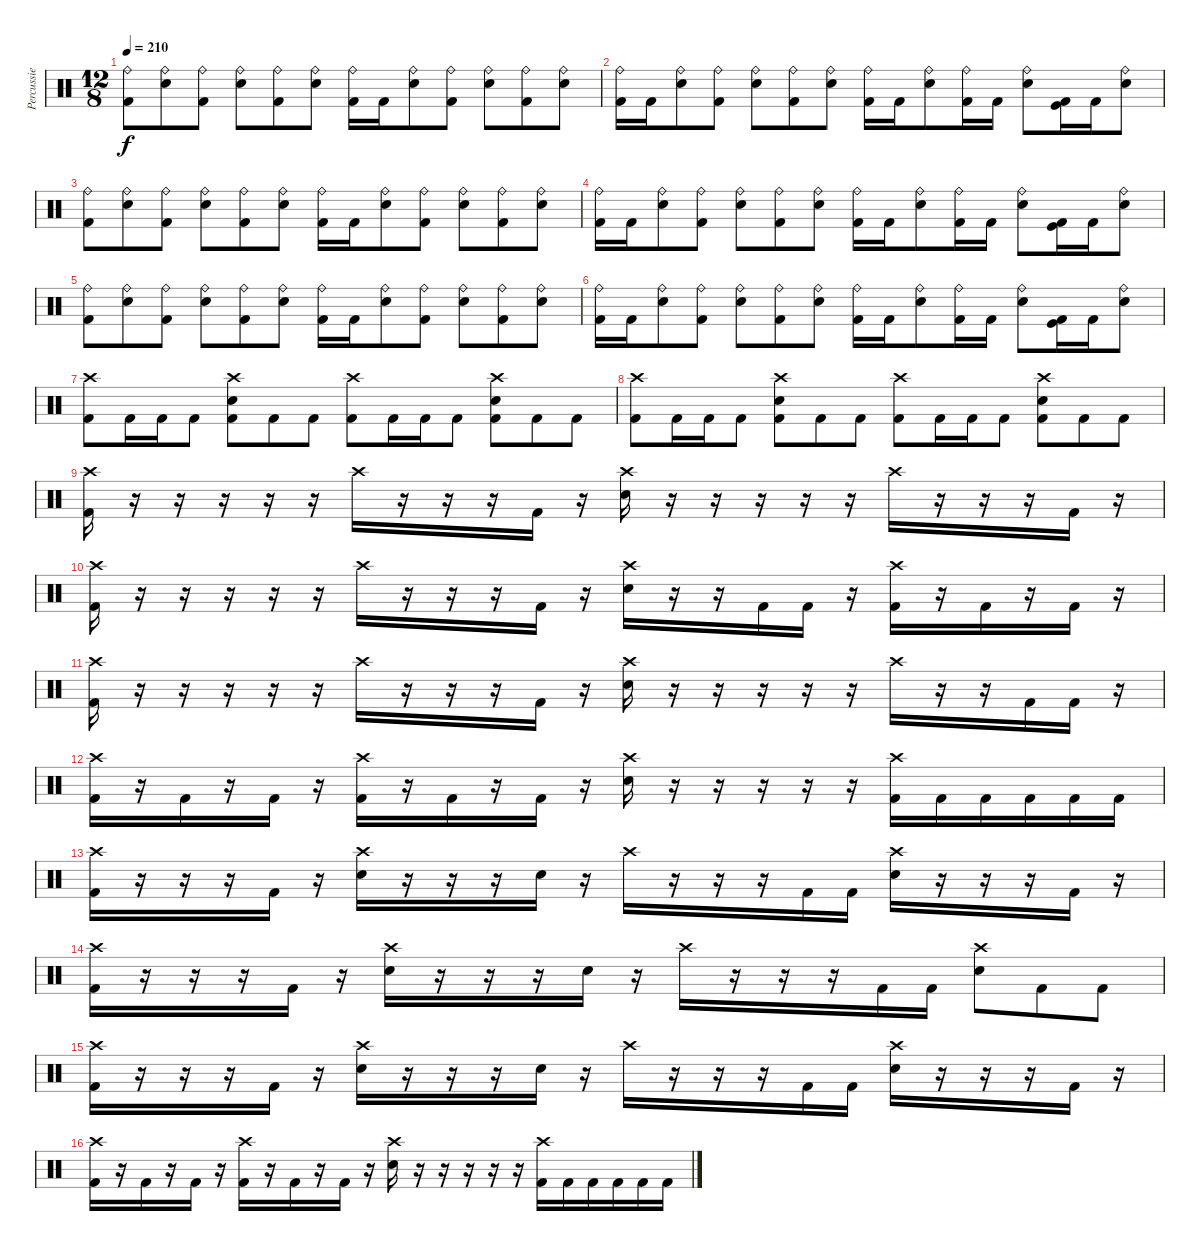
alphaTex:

\track ("Percussie" "Percussie") {instrument percussion}
\staff {score}
\articulation defaults
\ts (12 8)
\tempo 210
\clef neutral
\ks c
("Kick (hit) 2" "Ride (bell)").8{dy f} ("Snare (hit) 2" "Ride (bell)").8 ("Kick (hit) 2" "Ride (bell)").8 ("Snare (hit) 2" "Ride (bell)").8 ("Kick (hit) 2" "Ride (bell)").8 ("Snare (hit) 2" "Ride (bell)").8 ("Kick (hit) 2" "Ride (bell)").16 "Kick (hit) 2".16 ("Snare (hit) 2" "Ride (bell)").8 ("Kick (hit) 2" "Ride (bell)").8 ("Snare (hit) 2" "Ride (bell)").8 ("Kick (hit) 2" "Ride (bell)").8 ("Snare (hit) 2" "Ride (bell)").8 |
("Kick (hit) 2" "Ride (bell)").16 "Kick (hit) 2".16 ("Snare (hit) 2" "Ride (bell)").8 ("Kick (hit) 2" "Ride (bell)").8 ("Snare (hit) 2" "Ride (bell)").8 ("Kick (hit) 2" "Ride (bell)").8 ("Snare (hit) 2" "Ride (bell)").8 ("Kick (hit) 2" "Ride (bell)").16 "Kick (hit) 2".16 ("Snare (hit) 2" "Ride (bell)").8 ("Kick (hit) 2" "Ride (bell)").16 "Kick (hit) 2".16 ("Snare (hit) 2" "Ride (bell)").8 ("Kick (hit) 2" "Kick (hit)").16 "Kick (hit) 2".16 ("Snare (hit) 2" "Ride (bell)").8 |
("Kick (hit) 2" "Ride (bell)").8 ("Snare (hit) 2" "Ride (bell)").8 ("Kick (hit) 2" "Ride (bell)").8 ("Snare (hit) 2" "Ride (bell)").8 ("Kick (hit) 2" "Ride (bell)").8 ("Snare (hit) 2" "Ride (bell)").8 ("Kick (hit) 2" "Ride (bell)").16 "Kick (hit) 2".16 ("Snare (hit) 2" "Ride (bell)").8 ("Kick (hit) 2" "Ride (bell)").8 ("Snare (hit) 2" "Ride (bell)").8 ("Kick (hit) 2" "Ride (bell)").8 ("Snare (hit) 2" "Ride (bell)").8 |
("Kick (hit) 2" "Ride (bell)").16 "Kick (hit) 2".16 ("Snare (hit) 2" "Ride (bell)").8 ("Kick (hit) 2" "Ride (bell)").8 ("Snare (hit) 2" "Ride (bell)").8 ("Kick (hit) 2" "Ride (bell)").8 ("Snare (hit) 2" "Ride (bell)").8 ("Kick (hit) 2" "Ride (bell)").16 "Kick (hit) 2".16 ("Snare (hit) 2" "Ride (bell)").8 ("Kick (hit) 2" "Ride (bell)").16 "Kick (hit) 2".16 ("Snare (hit) 2" "Ride (bell)").8 ("Kick (hit) 2" "Kick (hit)").16 "Kick (hit) 2".16 ("Snare (hit) 2" "Ride (bell)").8 |
("Kick (hit) 2" "Ride (bell)").8 ("Snare (hit) 2" "Ride (bell)").8 ("Kick (hit) 2" "Ride (bell)").8 ("Snare (hit) 2" "Ride (bell)").8 ("Kick (hit) 2" "Ride (bell)").8 ("Snare (hit) 2" "Ride (bell)").8 ("Kick (hit) 2" "Ride (bell)").16 "Kick (hit) 2".16 ("Snare (hit) 2" "Ride (bell)").8 ("Kick (hit) 2" "Ride (bell)").8 ("Snare (hit) 2" "Ride (bell)").8 ("Kick (hit) 2" "Ride (bell)").8 ("Snare (hit) 2" "Ride (bell)").8 |
("Kick (hit) 2" "Ride (bell)").16 "Kick (hit) 2".16 ("Snare (hit) 2" "Ride (bell)").8 ("Kick (hit) 2" "Ride (bell)").8 ("Snare (hit) 2" "Ride (bell)").8 ("Kick (hit) 2" "Ride (bell)").8 ("Snare (hit) 2" "Ride (bell)").8 ("Kick (hit) 2" "Ride (bell)").16 "Kick (hit) 2".16 ("Snare (hit) 2" "Ride (bell)").8 ("Kick (hit) 2" "Ride (bell)").16 "Kick (hit) 2".16 ("Snare (hit) 2" "Ride (bell)").8 ("Kick (hit) 2" "Kick (hit)").16 "Kick (hit) 2".16 ("Snare (hit) 2" "Ride (bell)").8 |
("Kick (hit) 2" "Crash high (hit)").8 "Kick (hit) 2".16 "Kick (hit) 2".16 "Kick (hit) 2".8 ("Kick (hit) 2" "Snare (hit) 2" "Crash high (hit)").8 "Kick (hit) 2".8 "Kick (hit) 2".8 ("Kick (hit) 2" "Crash high (hit)").8 "Kick (hit) 2".16 "Kick (hit) 2".16 "Kick (hit) 2".8 ("Kick (hit) 2" "Snare (hit) 2" "Crash high (hit)").8 "Kick (hit) 2".8 "Kick (hit) 2".8 |
("Kick (hit) 2" "Crash high (hit)").8 "Kick (hit) 2".16 "Kick (hit) 2".16 "Kick (hit) 2".8 ("Kick (hit) 2" "Snare (hit) 2" "Crash high (hit)").8 "Kick (hit) 2".8 "Kick (hit) 2".8 ("Kick (hit) 2" "Crash high (hit)").8 "Kick (hit) 2".16 "Kick (hit) 2".16 "Kick (hit) 2".8 ("Kick (hit) 2" "Snare (hit) 2" "Crash high (hit)").8 "Kick (hit) 2".8 "Kick (hit) 2".8 |
("Crash high (hit)" "Kick (hit) 2").16 r.16 r.16 r.16 r.16 r.16 "Crash high (hit)".16 r.16 r.16 r.16 "Kick (hit) 2".16 r.16 ("Crash high (hit)" "Snare (hit) 2").16 r.16 r.16 r.16 r.16 r.16 "Crash high (hit)".16 r.16 r.16 r.16 "Kick (hit) 2".16 r.16 |
("Crash high (hit)" "Kick (hit) 2").16 r.16 r.16 r.16 r.16 r.16 "Crash high (hit)".16 r.16 r.16 r.16 "Kick (hit) 2".16 r.16 ("Crash high (hit)" "Snare (hit) 2").16 r.16 r.16 "Kick (hit) 2".16 "Kick (hit) 2".16 r.16 ("Crash high (hit)" "Kick (hit) 2").16 r.16 "Kick (hit) 2".16 r.16 "Kick (hit) 2".16 r.16 |
("Crash high (hit)" "Kick (hit) 2").16 r.16 r.16 r.16 r.16 r.16 "Crash high (hit)".16 r.16 r.16 r.16 "Kick (hit) 2".16 r.16 ("Crash high (hit)" "Snare (hit) 2").16 r.16 r.16 r.16 r.16 r.16 "Crash high (hit)".16 r.16 r.16 "Kick (hit) 2".16 "Kick (hit) 2".16 r.16 |
("Crash high (hit)" "Kick (hit) 2").16 r.16 "Kick (hit) 2".16 r.16 "Kick (hit) 2".16 r.16 ("Crash high (hit)" "Kick (hit) 2").16 r.16 "Kick (hit) 2".16 r.16 "Kick (hit) 2".16 r.16 ("Crash high (hit)" "Snare (hit) 2").16 r.16 r.16 r.16 r.16 r.16 ("Crash high (hit)" "Kick (hit) 2").16 "Kick (hit) 2".16 "Kick (hit) 2".16 "Kick (hit) 2".16 "Kick (hit) 2".16 "Kick (hit) 2".16 |
("Crash high (hit)" "Kick (hit) 2").16 r.16 r.16 r.16 "Kick (hit) 2".16 r.16 ("Crash high (hit)" "Snare (hit) 2").16 r.16 r.16 r.16 "Snare (hit) 2".16 r.16 "Crash high (hit)".16 r.16 r.16 r.16 "Kick (hit) 2".16 "Kick (hit) 2".16 ("Crash high (hit)" "Snare (hit) 2").16 r.16 r.16 r.16 "Kick (hit) 2".16 r.16 |
("Crash high (hit)" "Kick (hit) 2").16 r.16 r.16 r.16 "Kick (hit) 2".16 r.16 ("Crash high (hit)" "Snare (hit) 2").16 r.16 r.16 r.16 "Snare (hit) 2".16 r.16 "Crash high (hit)".16 r.16 r.16 r.16 "Kick (hit) 2".16 "Kick (hit) 2".16 ("Crash high (hit)" "Snare (hit) 2").8 "Kick (hit) 2".8 "Kick (hit) 2".8 |
("Crash high (hit)" "Kick (hit) 2").16 r.16 r.16 r.16 "Kick (hit) 2".16 r.16 ("Crash high (hit)" "Snare (hit) 2").16 r.16 r.16 r.16 "Snare (hit) 2".16 r.16 "Crash high (hit)".16 r.16 r.16 r.16 "Kick (hit) 2".16 "Kick (hit) 2".16 ("Crash high (hit)" "Snare (hit) 2").16 r.16 r.16 r.16 "Kick (hit) 2".16 r.16 |
("Crash high (hit)" "Kick (hit) 2").16 r.16 "Kick (hit) 2".16 r.16 "Kick (hit) 2".16 r.16 ("Crash high (hit)" "Kick (hit) 2").16 r.16 "Kick (hit) 2".16 r.16 "Kick (hit) 2".16 r.16 ("Crash high (hit)" "Snare (hit) 2").16 r.16 r.16 r.16 r.16 r.16 ("Crash high (hit)" "Kick (hit) 2").16 "Kick (hit) 2".16 "Kick (hit) 2".16 "Kick (hit) 2".16 "Kick (hit) 2".16 "Kick (hit) 2".16
